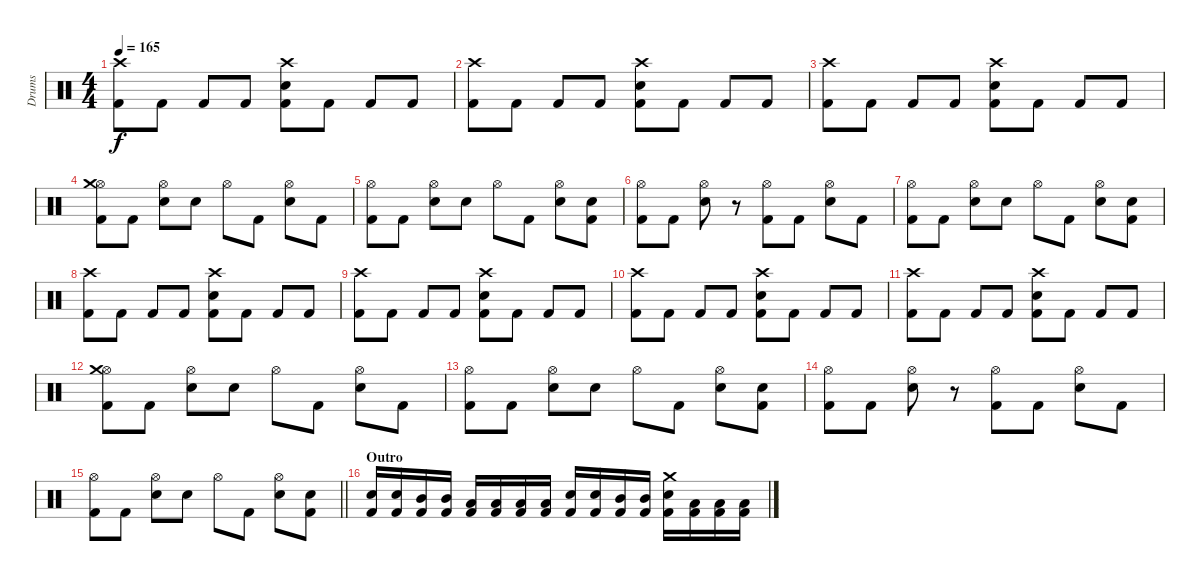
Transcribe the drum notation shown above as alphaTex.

\track ("Drums" "Drums") {instrument percussion}
\staff {score}
\articulation defaults
\ts (4 4)
\tempo 165
\clef neutral
\ks c
("Crash high (hit)" "Kick (hit) 2").8{dy f} "Kick (hit) 2".8 "Kick (hit) 2".8 "Kick (hit) 2".8 ("Crash high (hit)" "Snare (hit) 2" "Kick (hit) 2").8 "Kick (hit) 2".8 "Kick (hit) 2".8 "Kick (hit) 2".8 |
("Crash high (hit)" "Kick (hit) 2").8 "Kick (hit) 2".8 "Kick (hit) 2".8 "Kick (hit) 2".8 ("Crash high (hit)" "Snare (hit) 2" "Kick (hit) 2").8 "Kick (hit) 2".8 "Kick (hit) 2".8 "Kick (hit) 2".8 |
("Crash high (hit)" "Kick (hit) 2").8 "Kick (hit) 2".8 "Kick (hit) 2".8 "Kick (hit) 2".8 ("Crash high (hit)" "Snare (hit) 2" "Kick (hit) 2").8 "Kick (hit) 2".8 "Kick (hit) 2".8 "Kick (hit) 2".8 |
("Hi-Hat (open)" "Crash medium (hit)" "Kick (hit) 2").8 "Kick (hit) 2".8 ("Hi-Hat (open)" "Snare (hit) 2").8 "Snare (hit) 2".8 "Hi-Hat (open)".8 "Kick (hit) 2".8 ("Hi-Hat (open)" "Snare (hit) 2").8 "Kick (hit) 2".8 |
("Hi-Hat (open)" "Kick (hit) 2").8 "Kick (hit) 2".8 ("Hi-Hat (open)" "Snare (hit) 2").8 "Snare (hit) 2".8 "Hi-Hat (open)".8 "Kick (hit) 2".8 ("Hi-Hat (open)" "Snare (hit) 2").8 ("Snare (hit) 2" "Kick (hit) 2").8 |
("Hi-Hat (open)" "Kick (hit) 2").8 "Kick (hit) 2".8 ("Hi-Hat (open)" "Snare (hit) 2").8 r.8 ("Hi-Hat (open)" "Kick (hit) 2").8 "Kick (hit) 2".8 ("Hi-Hat (open)" "Snare (hit) 2").8 "Kick (hit) 2".8 |
("Hi-Hat (open)" "Kick (hit) 2").8 "Kick (hit) 2".8 ("Hi-Hat (open)" "Snare (hit) 2").8 "Snare (hit) 2".8 "Hi-Hat (open)".8 "Kick (hit) 2".8 ("Hi-Hat (open)" "Snare (hit) 2").8 ("Snare (hit) 2" "Kick (hit) 2").8 |
("Crash high (hit)" "Kick (hit) 2").8 "Kick (hit) 2".8 "Kick (hit) 2".8 "Kick (hit) 2".8 ("Crash high (hit)" "Snare (hit) 2" "Kick (hit) 2").8 "Kick (hit) 2".8 "Kick (hit) 2".8 "Kick (hit) 2".8 |
("Crash high (hit)" "Kick (hit) 2").8 "Kick (hit) 2".8 "Kick (hit) 2".8 "Kick (hit) 2".8 ("Crash high (hit)" "Snare (hit) 2" "Kick (hit) 2").8 "Kick (hit) 2".8 "Kick (hit) 2".8 "Kick (hit) 2".8 |
("Crash high (hit)" "Kick (hit) 2").8 "Kick (hit) 2".8 "Kick (hit) 2".8 "Kick (hit) 2".8 ("Crash high (hit)" "Snare (hit) 2" "Kick (hit) 2").8 "Kick (hit) 2".8 "Kick (hit) 2".8 "Kick (hit) 2".8 |
("Crash high (hit)" "Kick (hit) 2").8 "Kick (hit) 2".8 "Kick (hit) 2".8 "Kick (hit) 2".8 ("Crash high (hit)" "Snare (hit) 2" "Kick (hit) 2").8 "Kick (hit) 2".8 "Kick (hit) 2".8 "Kick (hit) 2".8 |
("Hi-Hat (open)" "Crash medium (hit)" "Kick (hit) 2").8 "Kick (hit) 2".8 ("Hi-Hat (open)" "Snare (hit) 2").8 "Snare (hit) 2".8 "Hi-Hat (open)".8 "Kick (hit) 2".8 ("Hi-Hat (open)" "Snare (hit) 2").8 "Kick (hit) 2".8 |
("Hi-Hat (open)" "Kick (hit) 2").8 "Kick (hit) 2".8 ("Hi-Hat (open)" "Snare (hit) 2").8 "Snare (hit) 2".8 "Hi-Hat (open)".8 "Kick (hit) 2".8 ("Hi-Hat (open)" "Snare (hit) 2").8 ("Snare (hit) 2" "Kick (hit) 2").8 |
("Hi-Hat (open)" "Kick (hit) 2").8 "Kick (hit) 2".8 ("Hi-Hat (open)" "Snare (hit) 2").8 r.8 ("Hi-Hat (open)" "Kick (hit) 2").8 "Kick (hit) 2".8 ("Hi-Hat (open)" "Snare (hit) 2").8 "Kick (hit) 2".8 |
\barLineRight lightlight
("Hi-Hat (open)" "Kick (hit) 2").8 "Kick (hit) 2".8 ("Hi-Hat (open)" "Snare (hit) 2").8 "Snare (hit) 2".8 "Hi-Hat (open)".8 "Kick (hit) 2".8 ("Hi-Hat (open)" "Snare (hit) 2").8 ("Snare (hit) 2" "Kick (hit) 2").8 |
\section ("" "Outro")
("Snare (hit) 2" "Kick (hit) 2").16 ("Snare (hit) 2" "Kick (hit) 2").16 ("Mid Tom (hit)" "Kick (hit) 2").16 ("Mid Tom (hit)" "Kick (hit) 2").16 ("Low Tom (hit)" "Kick (hit) 2").16 ("Low Tom (hit)" "Kick (hit) 2").16 ("Low Floor Tom (hit)" "Kick (hit) 2").16 ("Low Floor Tom (hit)" "Kick (hit) 2").16 ("Snare (hit) 2" "Kick (hit) 2").16 ("Snare (hit) 2" "Kick (hit) 2").16 ("Mid Tom (hit)" "Kick (hit) 2").16 ("Mid Tom (hit)" "Kick (hit) 2").16 ("Crash medium (hit)" "Snare (hit) 2" "Kick (hit) 2").16 ("Low Tom (hit)" "Kick (hit) 2").16 ("Low Tom (hit)" "Kick (hit) 2").16 ("Low Tom (hit)" "Kick (hit) 2").16
